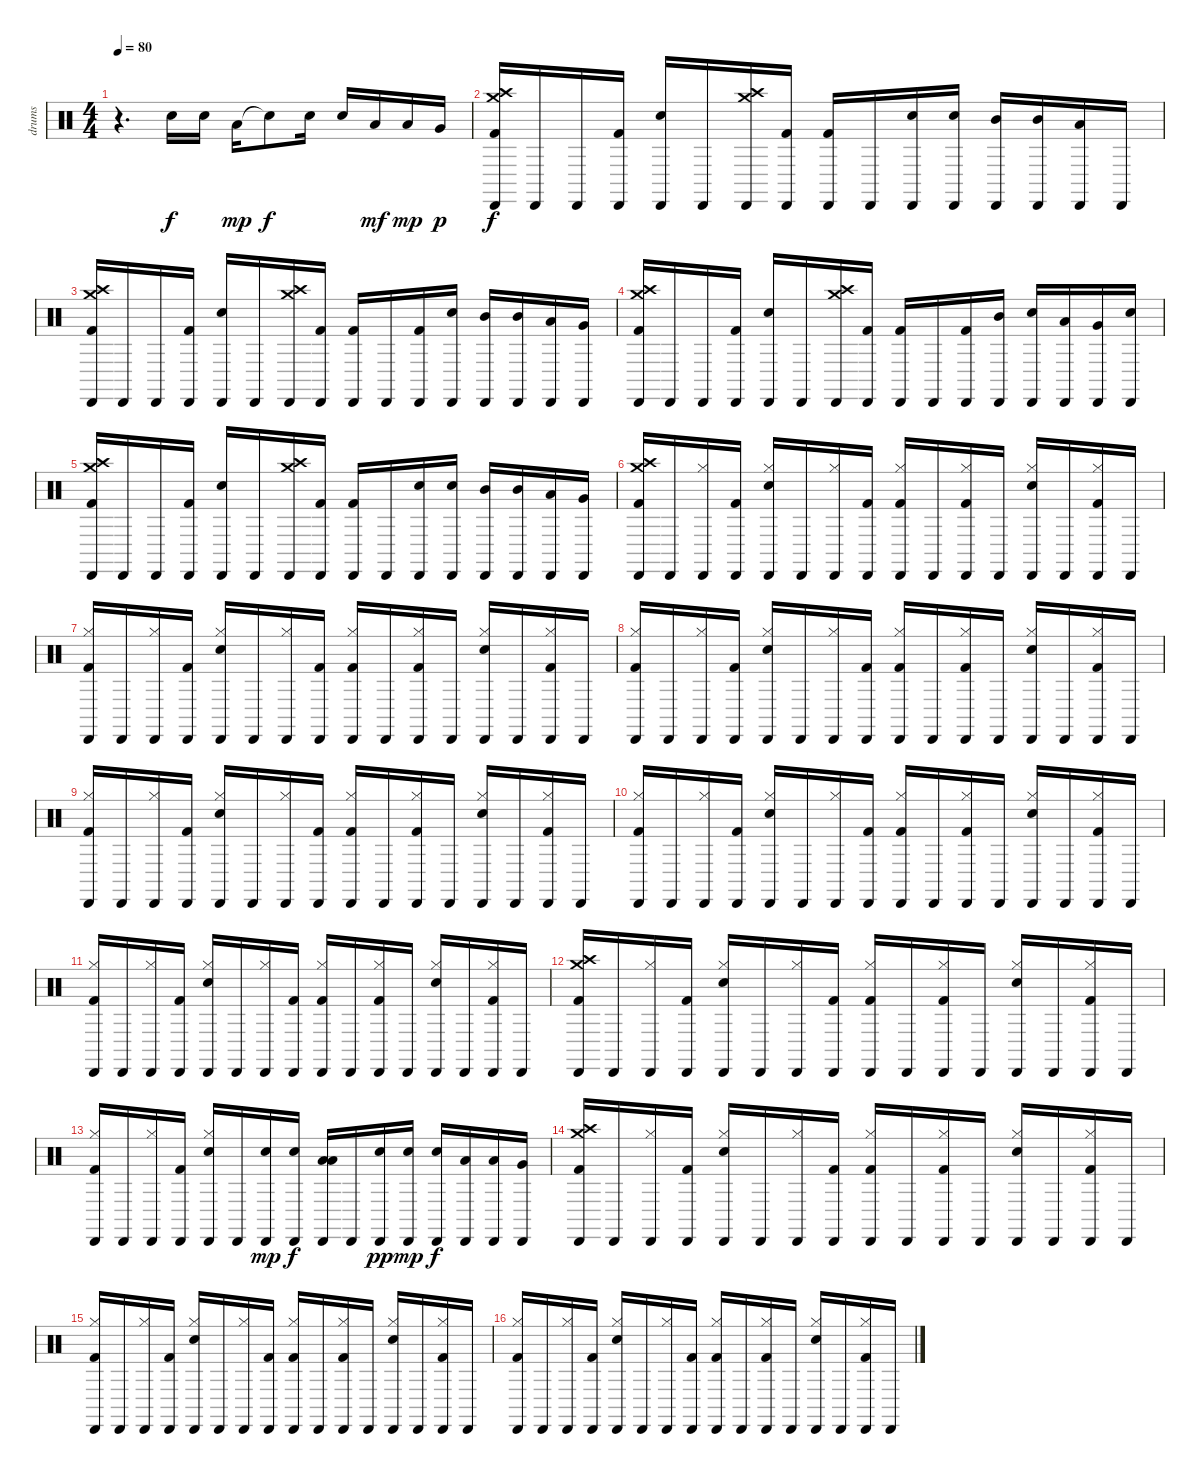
\track ("drums" "drums") {instrument percussion}
\staff {score}
\articulation defaults
\ts (4 4)
\tempo 80
\clef neutral
\ks c
r.4{d dy f} "Electric Snare (hit)".16 "Electric Snare (hit)".16 "Low Tom (hit)".16{dy mp} "Snare (hit)"{t}.8{dy f} "Electric Snare (hit)".16 "Electric Snare (hit)".16 "Low Tom (hit)".16{dy mf} "Low Tom (hit)".16{dy mp} "Very Low Tom (hit)".16{dy p} |
("Cabasa (hit)" "Crash medium (hit)" "Kick (hit) 2" "Crash high (hit)").16{dy f} "Cabasa (hit)".16 "Cabasa (hit)".16 ("Cabasa (hit)" "Kick (hit) 2").16 ("Cabasa (hit)" "Electric Snare (hit)").16 "Cabasa (hit)".16 ("Cabasa (hit)" "Crash medium (hit)" "Crash high (hit)").16 ("Cabasa (hit)" "Kick (hit) 2").16 ("Cabasa (hit)" "Kick (hit) 2").16 "Cabasa (hit)".16 ("Cabasa (hit)" "Electric Snare (hit)").16 ("Cabasa (hit)" "Electric Snare (hit)").16 ("Cabasa (hit)" "Mid Tom (hit)").16 ("Cabasa (hit)" "Mid Tom (hit)").16 ("Cabasa (hit)" "Low Tom (hit)").16 "Cabasa (hit)".16 |
("Cabasa (hit)" "Crash medium (hit)" "Crash high (hit)" "Kick (hit) 2").16 "Cabasa (hit)".16 "Cabasa (hit)".16 ("Cabasa (hit)" "Kick (hit) 2").16 ("Cabasa (hit)" "Electric Snare (hit)").16 "Cabasa (hit)".16 ("Cabasa (hit)" "Crash high (hit)" "Crash medium (hit)").16 ("Cabasa (hit)" "Kick (hit) 2").16 ("Cabasa (hit)" "Kick (hit) 2").16 "Cabasa (hit)".16 ("Cabasa (hit)" "Kick (hit) 2").16 ("Cabasa (hit)" "Electric Snare (hit)").16 ("Cabasa (hit)" "Mid Tom (hit)").16 ("Cabasa (hit)" "Mid Tom (hit)").16 ("Cabasa (hit)" "Low Tom (hit)").16 ("Cabasa (hit)" "Very Low Tom (hit)").16 |
("Cabasa (hit)" "Kick (hit) 2" "Crash high (hit)" "Crash medium (hit)").16 "Cabasa (hit)".16 "Cabasa (hit)".16 ("Cabasa (hit)" "Kick (hit) 2").16 ("Cabasa (hit)" "Electric Snare (hit)").16 "Cabasa (hit)".16 ("Cabasa (hit)" "Crash medium (hit)" "Crash high (hit)").16 ("Cabasa (hit)" "Kick (hit) 2").16 ("Cabasa (hit)" "Kick (hit) 2").16 "Cabasa (hit)".16 ("Cabasa (hit)" "Kick (hit) 2").16 ("Cabasa (hit)" "Mid Tom (hit)").16 ("Cabasa (hit)" "Electric Snare (hit)").16 ("Cabasa (hit)" "Low Tom (hit)").16 ("Cabasa (hit)" "Very Low Tom (hit)").16 ("Cabasa (hit)" "Electric Snare (hit)").16 |
("Cabasa (hit)" "Crash high (hit)" "Crash medium (hit)" "Kick (hit) 2").16 "Cabasa (hit)".16 "Cabasa (hit)".16 ("Cabasa (hit)" "Kick (hit) 2").16 ("Cabasa (hit)" "Electric Snare (hit)").16 "Cabasa (hit)".16 ("Cabasa (hit)" "Crash medium (hit)" "Crash high (hit)").16 ("Cabasa (hit)" "Kick (hit) 2").16 ("Cabasa (hit)" "Kick (hit) 2").16 "Cabasa (hit)".16 ("Cabasa (hit)" "Electric Snare (hit)").16 ("Cabasa (hit)" "Electric Snare (hit)").16 ("Cabasa (hit)" "Mid Tom (hit)").16 ("Cabasa (hit)" "Mid Tom (hit)").16 ("Cabasa (hit)" "Low Tom (hit)").16 ("Cabasa (hit)" "Very Low Tom (hit)").16 |
("Cabasa (hit)" "Crash medium (hit)" "Kick (hit) 2" "Crash high (hit)").16 "Cabasa (hit)".16 ("Cabasa (hit)" "Hi-Hat (closed)").16 ("Cabasa (hit)" "Kick (hit) 2").16 ("Cabasa (hit)" "Hi-Hat (closed)" "Electric Snare (hit)").16 "Cabasa (hit)".16 ("Cabasa (hit)" "Hi-Hat (closed)").16 ("Cabasa (hit)" "Kick (hit) 2").16 ("Cabasa (hit)" "Hi-Hat (closed)" "Kick (hit) 2").16 "Cabasa (hit)".16 ("Cabasa (hit)" "Hi-Hat (closed)" "Kick (hit) 2").16 "Cabasa (hit)".16 ("Cabasa (hit)" "Hi-Hat (closed)" "Electric Snare (hit)").16 "Cabasa (hit)".16 ("Cabasa (hit)" "Hi-Hat (closed)" "Kick (hit) 2").16 "Cabasa (hit)".16 |
("Cabasa (hit)" "Hi-Hat (closed)" "Kick (hit) 2").16 "Cabasa (hit)".16 ("Cabasa (hit)" "Hi-Hat (closed)").16 ("Cabasa (hit)" "Kick (hit) 2").16 ("Cabasa (hit)" "Hi-Hat (closed)" "Electric Snare (hit)").16 "Cabasa (hit)".16 ("Cabasa (hit)" "Hi-Hat (closed)").16 ("Cabasa (hit)" "Kick (hit) 2").16 ("Cabasa (hit)" "Hi-Hat (closed)" "Kick (hit) 2").16 "Cabasa (hit)".16 ("Cabasa (hit)" "Hi-Hat (closed)" "Kick (hit) 2").16 "Cabasa (hit)".16 ("Cabasa (hit)" "Hi-Hat (closed)" "Electric Snare (hit)").16 "Cabasa (hit)".16 ("Cabasa (hit)" "Hi-Hat (closed)" "Kick (hit) 2").16 "Cabasa (hit)".16 |
("Cabasa (hit)" "Hi-Hat (closed)" "Kick (hit) 2").16 "Cabasa (hit)".16 ("Cabasa (hit)" "Hi-Hat (closed)").16 ("Cabasa (hit)" "Kick (hit) 2").16 ("Cabasa (hit)" "Hi-Hat (closed)" "Electric Snare (hit)").16 "Cabasa (hit)".16 ("Cabasa (hit)" "Hi-Hat (closed)").16 ("Cabasa (hit)" "Kick (hit) 2").16 ("Cabasa (hit)" "Hi-Hat (closed)" "Kick (hit) 2").16 "Cabasa (hit)".16 ("Cabasa (hit)" "Hi-Hat (closed)" "Kick (hit) 2").16 "Cabasa (hit)".16 ("Cabasa (hit)" "Hi-Hat (closed)" "Electric Snare (hit)").16 "Cabasa (hit)".16 ("Cabasa (hit)" "Hi-Hat (closed)" "Kick (hit) 2").16 "Cabasa (hit)".16 |
("Cabasa (hit)" "Hi-Hat (closed)" "Kick (hit) 2").16 "Cabasa (hit)".16 ("Cabasa (hit)" "Hi-Hat (closed)").16 ("Cabasa (hit)" "Kick (hit) 2").16 ("Cabasa (hit)" "Hi-Hat (closed)" "Electric Snare (hit)").16 "Cabasa (hit)".16 ("Cabasa (hit)" "Hi-Hat (closed)").16 ("Cabasa (hit)" "Kick (hit) 2").16 ("Cabasa (hit)" "Hi-Hat (closed)" "Kick (hit) 2").16 "Cabasa (hit)".16 ("Cabasa (hit)" "Hi-Hat (closed)" "Kick (hit) 2").16 "Cabasa (hit)".16 ("Cabasa (hit)" "Hi-Hat (closed)" "Electric Snare (hit)").16 "Cabasa (hit)".16 ("Cabasa (hit)" "Hi-Hat (closed)" "Kick (hit) 2").16 "Cabasa (hit)".16 |
("Cabasa (hit)" "Hi-Hat (closed)" "Kick (hit) 2").16 "Cabasa (hit)".16 ("Cabasa (hit)" "Hi-Hat (closed)").16 ("Cabasa (hit)" "Kick (hit) 2").16 ("Cabasa (hit)" "Hi-Hat (closed)" "Electric Snare (hit)").16 "Cabasa (hit)".16 ("Cabasa (hit)" "Hi-Hat (closed)").16 ("Cabasa (hit)" "Kick (hit) 2").16 ("Cabasa (hit)" "Hi-Hat (closed)" "Kick (hit) 2").16 "Cabasa (hit)".16 ("Cabasa (hit)" "Hi-Hat (closed)" "Kick (hit) 2").16 "Cabasa (hit)".16 ("Cabasa (hit)" "Hi-Hat (closed)" "Electric Snare (hit)").16 "Cabasa (hit)".16 ("Cabasa (hit)" "Hi-Hat (closed)" "Kick (hit) 2").16 "Cabasa (hit)".16 |
("Cabasa (hit)" "Hi-Hat (closed)" "Kick (hit) 2").16 "Cabasa (hit)".16 ("Cabasa (hit)" "Hi-Hat (closed)").16 ("Cabasa (hit)" "Kick (hit) 2").16 ("Cabasa (hit)" "Hi-Hat (closed)" "Electric Snare (hit)").16 "Cabasa (hit)".16 ("Cabasa (hit)" "Hi-Hat (closed)").16 ("Cabasa (hit)" "Kick (hit) 2").16 ("Cabasa (hit)" "Hi-Hat (closed)" "Kick (hit) 2").16 "Cabasa (hit)".16 ("Cabasa (hit)" "Hi-Hat (closed)" "Kick (hit) 2").16 "Cabasa (hit)".16 ("Cabasa (hit)" "Hi-Hat (closed)" "Electric Snare (hit)").16 "Cabasa (hit)".16 ("Cabasa (hit)" "Hi-Hat (closed)" "Kick (hit) 2").16 "Cabasa (hit)".16 |
("Cabasa (hit)" "Crash high (hit)" "Kick (hit) 2" "Crash medium (hit)").16 "Cabasa (hit)".16 ("Cabasa (hit)" "Hi-Hat (closed)").16 ("Cabasa (hit)" "Kick (hit) 2").16 ("Cabasa (hit)" "Hi-Hat (closed)" "Electric Snare (hit)").16 "Cabasa (hit)".16 ("Cabasa (hit)" "Hi-Hat (closed)").16 ("Cabasa (hit)" "Kick (hit) 2").16 ("Cabasa (hit)" "Hi-Hat (closed)" "Kick (hit) 2").16 "Cabasa (hit)".16 ("Cabasa (hit)" "Hi-Hat (closed)" "Kick (hit) 2").16 "Cabasa (hit)".16 ("Cabasa (hit)" "Hi-Hat (closed)" "Electric Snare (hit)").16 "Cabasa (hit)".16 ("Cabasa (hit)" "Hi-Hat (closed)" "Kick (hit) 2").16 "Cabasa (hit)".16 |
("Cabasa (hit)" "Hi-Hat (closed)" "Kick (hit) 2").16 "Cabasa (hit)".16 ("Cabasa (hit)" "Hi-Hat (closed)").16 ("Cabasa (hit)" "Kick (hit) 2").16 ("Cabasa (hit)" "Hi-Hat (closed)" "Electric Snare (hit)").16 "Cabasa (hit)".16 ("Cabasa (hit)" "Electric Snare (hit)").16{dy mp} ("Cabasa (hit)" "Electric Snare (hit)").16{dy f} ("Low Tom (hit)" "Low Tom (hit)" "Cabasa (hit)").16 "Cabasa (hit)".16 ("Electric Snare (hit)" "Cabasa (hit)").16{dy pp} ("Electric Snare (hit)" "Cabasa (hit)").16{dy mp} ("Electric Snare (hit)" "Cabasa (hit)").16{dy f} ("Low Tom (hit)" "Cabasa (hit)").16 ("Low Tom (hit)" "Cabasa (hit)").16 ("Very Low Tom (hit)" "Cabasa (hit)").16 |
("Cabasa (hit)" "Crash medium (hit)" "Kick (hit) 2" "Crash high (hit)").16 "Cabasa (hit)".16 ("Cabasa (hit)" "Hi-Hat (closed)").16 ("Cabasa (hit)" "Kick (hit) 2").16 ("Cabasa (hit)" "Hi-Hat (closed)" "Electric Snare (hit)").16 "Cabasa (hit)".16 ("Cabasa (hit)" "Hi-Hat (closed)").16 ("Cabasa (hit)" "Kick (hit) 2").16 ("Cabasa (hit)" "Hi-Hat (closed)" "Kick (hit) 2").16 "Cabasa (hit)".16 ("Cabasa (hit)" "Hi-Hat (closed)" "Kick (hit) 2").16 "Cabasa (hit)".16 ("Cabasa (hit)" "Hi-Hat (closed)" "Electric Snare (hit)").16 "Cabasa (hit)".16 ("Cabasa (hit)" "Hi-Hat (closed)" "Kick (hit) 2").16 "Cabasa (hit)".16 |
("Cabasa (hit)" "Hi-Hat (closed)" "Kick (hit) 2").16 "Cabasa (hit)".16 ("Cabasa (hit)" "Hi-Hat (closed)").16 ("Cabasa (hit)" "Kick (hit) 2").16 ("Cabasa (hit)" "Hi-Hat (closed)" "Electric Snare (hit)").16 "Cabasa (hit)".16 ("Cabasa (hit)" "Hi-Hat (closed)").16 ("Cabasa (hit)" "Kick (hit) 2").16 ("Cabasa (hit)" "Hi-Hat (closed)" "Kick (hit) 2").16 "Cabasa (hit)".16 ("Cabasa (hit)" "Hi-Hat (closed)" "Kick (hit) 2").16 "Cabasa (hit)".16 ("Cabasa (hit)" "Hi-Hat (closed)" "Electric Snare (hit)").16 "Cabasa (hit)".16 ("Cabasa (hit)" "Hi-Hat (closed)" "Kick (hit) 2").16 "Cabasa (hit)".16 |
("Cabasa (hit)" "Hi-Hat (closed)" "Kick (hit) 2").16 "Cabasa (hit)".16 ("Cabasa (hit)" "Hi-Hat (closed)").16 ("Cabasa (hit)" "Kick (hit) 2").16 ("Cabasa (hit)" "Hi-Hat (closed)" "Electric Snare (hit)").16 "Cabasa (hit)".16 ("Cabasa (hit)" "Hi-Hat (closed)").16 ("Cabasa (hit)" "Kick (hit) 2").16 ("Cabasa (hit)" "Hi-Hat (closed)" "Kick (hit) 2").16 "Cabasa (hit)".16 ("Cabasa (hit)" "Hi-Hat (closed)" "Kick (hit) 2").16 "Cabasa (hit)".16 ("Cabasa (hit)" "Hi-Hat (closed)" "Electric Snare (hit)").16 "Cabasa (hit)".16 ("Cabasa (hit)" "Hi-Hat (closed)" "Kick (hit) 2").16 "Cabasa (hit)".16
